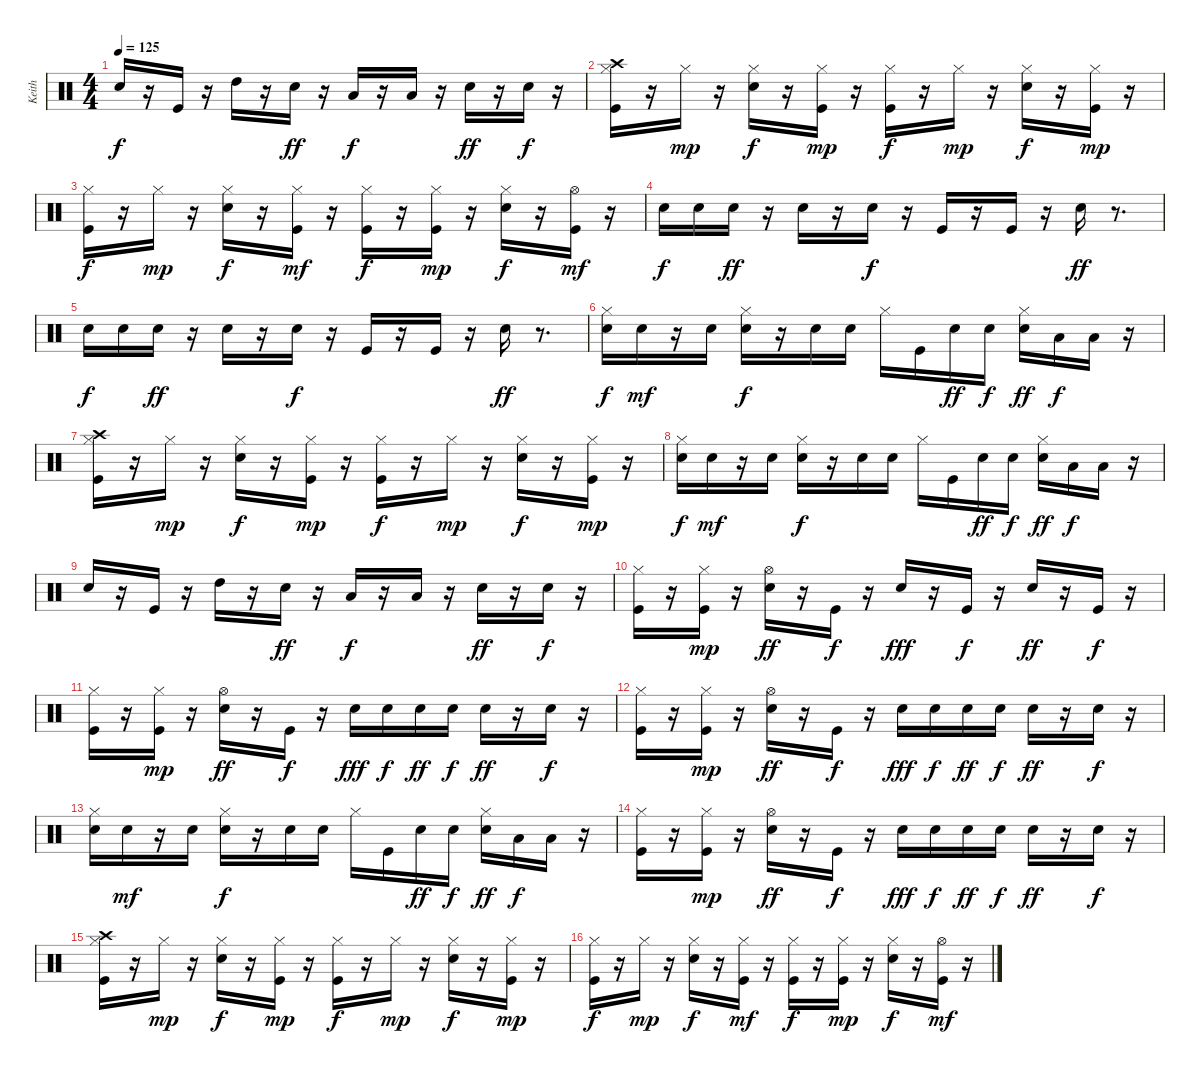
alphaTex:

\track ("Keith" "Keith") {instrument percussion}
\staff {score}
\articulation defaults
\ts (4 4)
\tempo 125
\clef neutral
\ks c "Snare (hit) 2".16{dy f}
r.16 "Kick (hit)".16 r.16 "High Tom (hit)".16 r.16 "Snare (hit) 2".16{dy ff} r.16 "Low Tom (hit)".16{dy f} r.16 "Low Tom (hit)".16 r.16 "Snare (hit) 2".16{dy ff} r.16 "Snare (hit) 2".16{dy f} r.16 |
("Kick (hit)" "Hi-Hat (closed)" "Crash high (hit)").16 r.16 "Hi-Hat (closed)".16{dy mp} r.16 ("Snare (hit) 2" "Hi-Hat (closed)").16{dy f} r.16 ("Kick (hit)" "Hi-Hat (closed)").16{dy mp} r.16 ("Kick (hit)" "Hi-Hat (closed)").16{dy f} r.16 "Hi-Hat (closed)".16{dy mp} r.16 ("Snare (hit) 2" "Hi-Hat (closed)").16{dy f} r.16 ("Kick (hit)" "Hi-Hat (closed)").16{dy mp} r.16 |
("Kick (hit)" "Hi-Hat (closed)").16{dy f} r.16 "Hi-Hat (closed)".16{dy mp} r.16 ("Snare (hit) 2" "Hi-Hat (closed)").16{dy f} r.16 ("Kick (hit)" "Hi-Hat (closed)").16{dy mf} r.16 ("Kick (hit)" "Hi-Hat (closed)").16{dy f} r.16 ("Kick (hit)" "Hi-Hat (closed)").16{dy mp} r.16 ("Snare (hit) 2" "Hi-Hat (closed)").16{dy f} r.16 ("Kick (hit)" "Hi-Hat (open)").16{dy mf} r.16 |
"Snare (hit) 2".16{dy f} "Snare (hit) 2".16 "Snare (hit) 2".16{dy ff} r.16 "Snare (hit) 2".16 r.16 "Snare (hit) 2".16{dy f} r.16 "Kick (hit)".16 r.16 "Kick (hit)".16 r.16 "Snare (hit) 2".16{dy ff} r.8{d} |
"Snare (hit) 2".16{dy f} "Snare (hit) 2".16 "Snare (hit) 2".16{dy ff} r.16 "Snare (hit) 2".16 r.16 "Snare (hit) 2".16{dy f} r.16 "Kick (hit)".16 r.16 "Kick (hit)".16 r.16 "Snare (hit) 2".16{dy ff} r.8{d} |
("Snare (hit) 2" "Hi-Hat (closed)").16{dy f} "Snare (hit) 2".16{dy mf} r.16 "Snare (hit) 2".16 ("Snare (hit) 2" "Hi-Hat (closed)").16{dy f} r.16 "Snare (hit) 2".16 "Snare (hit) 2".16 "Hi-Hat (closed)".16 "Kick (hit)".16 "Snare (hit) 2".16{dy ff} "Snare (hit) 2".16{dy f} ("Snare (hit) 2" "Hi-Hat (closed)").16{dy ff} "Low Tom (hit)".16{dy f} "Low Floor Tom (hit)".16 r.16 |
("Kick (hit)" "Hi-Hat (closed)" "Crash high (hit)").16 r.16 "Hi-Hat (closed)".16{dy mp} r.16 ("Snare (hit) 2" "Hi-Hat (closed)").16{dy f} r.16 ("Kick (hit)" "Hi-Hat (closed)").16{dy mp} r.16 ("Kick (hit)" "Hi-Hat (closed)").16{dy f} r.16 "Hi-Hat (closed)".16{dy mp} r.16 ("Snare (hit) 2" "Hi-Hat (closed)").16{dy f} r.16 ("Kick (hit)" "Hi-Hat (closed)").16{dy mp} r.16 |
("Snare (hit) 2" "Hi-Hat (closed)").16{dy f} "Snare (hit) 2".16{dy mf} r.16 "Snare (hit) 2".16 ("Snare (hit) 2" "Hi-Hat (closed)").16{dy f} r.16 "Snare (hit) 2".16 "Snare (hit) 2".16 "Hi-Hat (closed)".16 "Kick (hit)".16 "Snare (hit) 2".16{dy ff} "Snare (hit) 2".16{dy f} ("Snare (hit) 2" "Hi-Hat (closed)").16{dy ff} "Low Tom (hit)".16{dy f} "Low Floor Tom (hit)".16 r.16 |
"Snare (hit) 2".16 r.16 "Kick (hit)".16 r.16 "High Tom (hit)".16 r.16 "Snare (hit) 2".16{dy ff} r.16 "Low Tom (hit)".16{dy f} r.16 "Low Tom (hit)".16 r.16 "Snare (hit) 2".16{dy ff} r.16 "Snare (hit) 2".16{dy f} r.16 |
("Kick (hit)" "Hi-Hat (closed)").16 r.16 ("Kick (hit)" "Hi-Hat (closed)").16{dy mp} r.16 ("Snare (hit) 2" "Hi-Hat (open)").16{dy ff} r.16 "Kick (hit)".16{dy f} r.16 "Snare (hit) 2".16{dy fff} r.16 "Kick (hit)".16{dy f} r.16 "Snare (hit) 2".16{dy ff} r.16 "Kick (hit)".16{dy f} r.16 |
("Kick (hit)" "Hi-Hat (closed)").16 r.16 ("Kick (hit)" "Hi-Hat (closed)").16{dy mp} r.16 ("Snare (hit) 2" "Hi-Hat (open)").16{dy ff} r.16 "Kick (hit)".16{dy f} r.16 "Snare (hit) 2".16{dy fff} "Snare (hit) 2".16{dy f} "Snare (hit) 2".16{dy ff} "Snare (hit) 2".16{dy f} "Snare (hit) 2".16{dy ff} r.16 "Snare (hit) 2".16{dy f} r.16 |
("Kick (hit)" "Hi-Hat (closed)").16 r.16 ("Kick (hit)" "Hi-Hat (closed)").16{dy mp} r.16 ("Snare (hit) 2" "Hi-Hat (open)").16{dy ff} r.16 "Kick (hit)".16{dy f} r.16 "Snare (hit) 2".16{dy fff} "Snare (hit) 2".16{dy f} "Snare (hit) 2".16{dy ff} "Snare (hit) 2".16{dy f} "Snare (hit) 2".16{dy ff} r.16 "Snare (hit) 2".16{dy f} r.16 |
("Snare (hit) 2" "Hi-Hat (closed)").16 "Snare (hit) 2".16{dy mf} r.16 "Snare (hit) 2".16 ("Snare (hit) 2" "Hi-Hat (closed)").16{dy f} r.16 "Snare (hit) 2".16 "Snare (hit) 2".16 "Hi-Hat (closed)".16 "Kick (hit)".16 "Snare (hit) 2".16{dy ff} "Snare (hit) 2".16{dy f} ("Snare (hit) 2" "Hi-Hat (closed)").16{dy ff} "Low Tom (hit)".16{dy f} "Low Floor Tom (hit)".16 r.16 |
("Kick (hit)" "Hi-Hat (closed)").16 r.16 ("Kick (hit)" "Hi-Hat (closed)").16{dy mp} r.16 ("Snare (hit) 2" "Hi-Hat (open)").16{dy ff} r.16 "Kick (hit)".16{dy f} r.16 "Snare (hit) 2".16{dy fff} "Snare (hit) 2".16{dy f} "Snare (hit) 2".16{dy ff} "Snare (hit) 2".16{dy f} "Snare (hit) 2".16{dy ff} r.16 "Snare (hit) 2".16{dy f} r.16 |
("Kick (hit)" "Hi-Hat (closed)" "Crash high (hit)").16 r.16 "Hi-Hat (closed)".16{dy mp} r.16 ("Snare (hit) 2" "Hi-Hat (closed)").16{dy f} r.16 ("Kick (hit)" "Hi-Hat (closed)").16{dy mp} r.16 ("Kick (hit)" "Hi-Hat (closed)").16{dy f} r.16 "Hi-Hat (closed)".16{dy mp} r.16 ("Snare (hit) 2" "Hi-Hat (closed)").16{dy f} r.16 ("Kick (hit)" "Hi-Hat (closed)").16{dy mp} r.16 |
("Kick (hit)" "Hi-Hat (closed)").16{dy f} r.16 "Hi-Hat (closed)".16{dy mp} r.16 ("Snare (hit) 2" "Hi-Hat (closed)").16{dy f} r.16 ("Kick (hit)" "Hi-Hat (closed)").16{dy mf} r.16 ("Kick (hit)" "Hi-Hat (closed)").16{dy f} r.16 ("Kick (hit)" "Hi-Hat (closed)").16{dy mp} r.16 ("Snare (hit) 2" "Hi-Hat (closed)").16{dy f} r.16 ("Kick (hit)" "Hi-Hat (open)").16{dy mf} r.16
